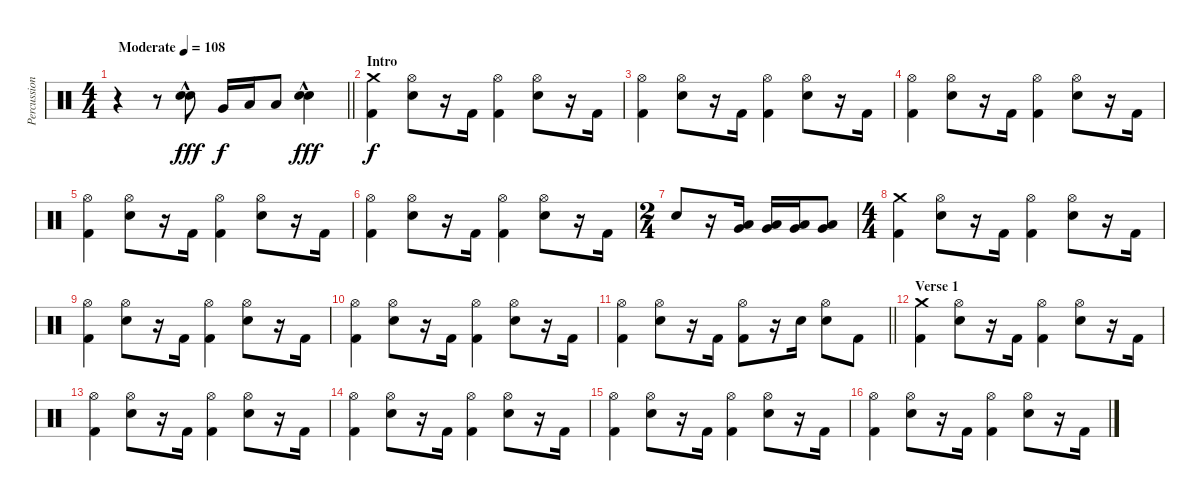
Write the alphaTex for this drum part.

\track ("Percussion" "Percussion") {instrument percussion}
\staff {score}
\articulation defaults
\ts (4 4)
\tempo (108 "Moderate")
\clef neutral
\barLineRight lightlight
\ks c
r.4{dy fff} r.8 ("Snare (hit) 2"{hac} "Snare (hit) 2"{hac}).8 "Very Low Tom (hit)".16{dy f} "Low Tom (hit)".16 "Low Tom (hit)".8 ("Snare (hit) 2"{hac} "Snare (hit) 2"{hac}).4{dy fff} |
\section ("" "Intro")
("Kick (hit) 2" "Crash medium (hit)").4{dy f} ("Hi-Hat (open)" "Snare (hit) 2").8 r.16 "Kick (hit) 2".16 ("Hi-Hat (open)" "Kick (hit) 2").4 ("Hi-Hat (open)" "Snare (hit) 2").8 r.16 "Kick (hit) 2".16 |
("Hi-Hat (open)" "Kick (hit) 2").4 ("Hi-Hat (open)" "Snare (hit) 2").8 r.16 "Kick (hit) 2".16 ("Hi-Hat (open)" "Kick (hit) 2").4 ("Hi-Hat (open)" "Snare (hit) 2").8 r.16 "Kick (hit) 2".16 |
("Hi-Hat (open)" "Kick (hit) 2").4 ("Hi-Hat (open)" "Snare (hit) 2").8 r.16 "Kick (hit) 2".16 ("Hi-Hat (open)" "Kick (hit) 2").4 ("Hi-Hat (open)" "Snare (hit) 2").8 r.16 "Kick (hit) 2".16 |
("Hi-Hat (open)" "Kick (hit) 2").4 ("Hi-Hat (open)" "Snare (hit) 2").8 r.16 "Kick (hit) 2".16 ("Hi-Hat (open)" "Kick (hit) 2").4 ("Hi-Hat (open)" "Snare (hit) 2").8 r.16 "Kick (hit) 2".16 |
("Hi-Hat (open)" "Kick (hit) 2").4 ("Hi-Hat (open)" "Snare (hit) 2").8 r.16 "Kick (hit) 2".16 ("Hi-Hat (open)" "Kick (hit) 2").4 ("Hi-Hat (open)" "Snare (hit) 2").8 r.16 "Kick (hit) 2".16 |
\ts (2 4)
"Snare (hit) 2".8 r.16 ("Very Low Tom (hit)" "Low Tom (hit)").16 ("Very Low Tom (hit)" "Low Tom (hit)").16 ("Very Low Tom (hit)" "Low Tom (hit)").16 ("Very Low Tom (hit)" "Low Tom (hit)").8 |
\ts (4 4)
("Kick (hit) 2" "Crash medium (hit)").4 ("Hi-Hat (open)" "Snare (hit) 2").8 r.16 "Kick (hit) 2".16 ("Hi-Hat (open)" "Kick (hit) 2").4 ("Hi-Hat (open)" "Snare (hit) 2").8 r.16 "Kick (hit) 2".16 |
("Hi-Hat (open)" "Kick (hit) 2").4 ("Hi-Hat (open)" "Snare (hit) 2").8 r.16 "Kick (hit) 2".16 ("Hi-Hat (open)" "Kick (hit) 2").4 ("Hi-Hat (open)" "Snare (hit) 2").8 r.16 "Kick (hit) 2".16 |
("Hi-Hat (open)" "Kick (hit) 2").4 ("Hi-Hat (open)" "Snare (hit) 2").8 r.16 "Kick (hit) 2".16 ("Hi-Hat (open)" "Kick (hit) 2").4 ("Hi-Hat (open)" "Snare (hit) 2").8 r.16 "Kick (hit) 2".16 |
\barLineRight lightlight
("Hi-Hat (open)" "Kick (hit) 2").4 ("Hi-Hat (open)" "Snare (hit) 2").8 r.16 "Kick (hit) 2".16 ("Hi-Hat (open)" "Kick (hit) 2").8 r.16 "Snare (hit) 2".16 ("Hi-Hat (open)" "Snare (hit) 2").8 "Kick (hit) 2".8 |
\section ("" "Verse 1")
("Kick (hit) 2" "Crash medium (hit)").4 ("Hi-Hat (open)" "Snare (hit) 2").8 r.16 "Kick (hit) 2".16 ("Hi-Hat (open)" "Kick (hit) 2").4 ("Hi-Hat (open)" "Snare (hit) 2").8 r.16 "Kick (hit) 2".16 |
("Hi-Hat (open)" "Kick (hit) 2").4 ("Hi-Hat (open)" "Snare (hit) 2").8 r.16 "Kick (hit) 2".16 ("Hi-Hat (open)" "Kick (hit) 2").4 ("Hi-Hat (open)" "Snare (hit) 2").8 r.16 "Kick (hit) 2".16 |
("Hi-Hat (open)" "Kick (hit) 2").4 ("Hi-Hat (open)" "Snare (hit) 2").8 r.16 "Kick (hit) 2".16 ("Hi-Hat (open)" "Kick (hit) 2").4 ("Hi-Hat (open)" "Snare (hit) 2").8 r.16 "Kick (hit) 2".16 |
("Hi-Hat (open)" "Kick (hit) 2").4 ("Hi-Hat (open)" "Snare (hit) 2").8 r.16 "Kick (hit) 2".16 ("Hi-Hat (open)" "Kick (hit) 2").4 ("Hi-Hat (open)" "Snare (hit) 2").8 r.16 "Kick (hit) 2".16 |
("Hi-Hat (open)" "Kick (hit) 2").4 ("Hi-Hat (open)" "Snare (hit) 2").8 r.16 "Kick (hit) 2".16 ("Hi-Hat (open)" "Kick (hit) 2").4 ("Hi-Hat (open)" "Snare (hit) 2").8 r.16 "Kick (hit) 2".16
